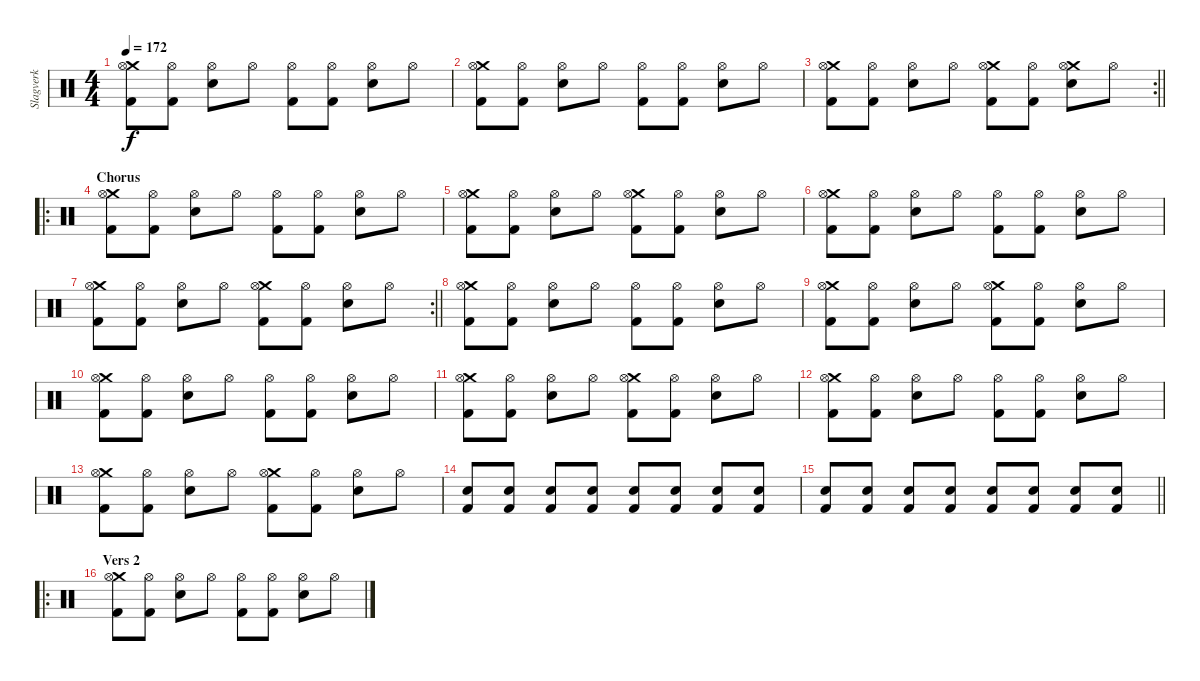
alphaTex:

\track ("Slagverk" "Slagverk") {instrument percussion}
\staff {score}
\articulation defaults
\ts (4 4)
\tempo 172
\clef neutral
\ks c
("Crash medium (hit)" "Kick (hit) 2" "Hi-Hat (open)").8{dy f} ("Kick (hit) 2" "Hi-Hat (open)").8 ("Snare (hit) 2" "Hi-Hat (open)").8 "Hi-Hat (open)".8 ("Kick (hit) 2" "Hi-Hat (open)").8 ("Kick (hit) 2" "Hi-Hat (open)").8 ("Snare (hit) 2" "Hi-Hat (open)").8 "Hi-Hat (open)".8 |
("Crash medium (hit)" "Kick (hit) 2" "Hi-Hat (open)").8 ("Kick (hit) 2" "Hi-Hat (open)").8 ("Snare (hit) 2" "Hi-Hat (open)").8 "Hi-Hat (open)".8 ("Kick (hit) 2" "Hi-Hat (open)").8 ("Kick (hit) 2" "Hi-Hat (open)").8 ("Snare (hit) 2" "Hi-Hat (open)").8 "Hi-Hat (open)".8 |
\rc 2
\barLineRight lightlight
("Crash medium (hit)" "Kick (hit) 2" "Hi-Hat (open)").8 ("Kick (hit) 2" "Hi-Hat (open)").8 ("Snare (hit) 2" "Hi-Hat (open)").8 "Hi-Hat (open)".8 ("Crash medium (hit)" "Kick (hit) 2" "Hi-Hat (open)").8 ("Kick (hit) 2" "Hi-Hat (open)").8 ("Crash medium (hit)" "Snare (hit) 2" "Hi-Hat (open)").8 "Hi-Hat (open)".8 |
\ro
\section ("" "Chorus")
("Crash medium (hit)" "Kick (hit) 2" "Hi-Hat (open)").8 ("Kick (hit) 2" "Hi-Hat (open)").8 ("Snare (hit) 2" "Hi-Hat (open)").8 "Hi-Hat (open)".8 ("Kick (hit) 2" "Hi-Hat (open)").8 ("Kick (hit) 2" "Hi-Hat (open)").8 ("Snare (hit) 2" "Hi-Hat (open)").8 "Hi-Hat (open)".8 |
("Crash medium (hit)" "Kick (hit) 2" "Hi-Hat (open)").8 ("Kick (hit) 2" "Hi-Hat (open)").8 ("Snare (hit) 2" "Hi-Hat (open)").8 "Hi-Hat (open)".8 ("Crash medium (hit)" "Kick (hit) 2" "Hi-Hat (open)").8 ("Kick (hit) 2" "Hi-Hat (open)").8 ("Snare (hit) 2" "Hi-Hat (open)").8 "Hi-Hat (open)".8 |
("Crash medium (hit)" "Kick (hit) 2" "Hi-Hat (open)").8 ("Kick (hit) 2" "Hi-Hat (open)").8 ("Snare (hit) 2" "Hi-Hat (open)").8 "Hi-Hat (open)".8 ("Kick (hit) 2" "Hi-Hat (open)").8 ("Kick (hit) 2" "Hi-Hat (open)").8 ("Snare (hit) 2" "Hi-Hat (open)").8 "Hi-Hat (open)".8 |
\rc 2
\barLineRight lightlight
("Crash medium (hit)" "Kick (hit) 2" "Hi-Hat (open)").8 ("Kick (hit) 2" "Hi-Hat (open)").8 ("Snare (hit) 2" "Hi-Hat (open)").8 "Hi-Hat (open)".8 ("Crash medium (hit)" "Kick (hit) 2" "Hi-Hat (open)").8 ("Kick (hit) 2" "Hi-Hat (open)").8 ("Snare (hit) 2" "Hi-Hat (open)").8 "Hi-Hat (open)".8 |
("Crash medium (hit)" "Kick (hit) 2" "Hi-Hat (open)").8 ("Kick (hit) 2" "Hi-Hat (open)").8 ("Snare (hit) 2" "Hi-Hat (open)").8 "Hi-Hat (open)".8 ("Kick (hit) 2" "Hi-Hat (open)").8 ("Kick (hit) 2" "Hi-Hat (open)").8 ("Snare (hit) 2" "Hi-Hat (open)").8 "Hi-Hat (open)".8 |
("Crash medium (hit)" "Kick (hit) 2" "Hi-Hat (open)").8 ("Kick (hit) 2" "Hi-Hat (open)").8 ("Snare (hit) 2" "Hi-Hat (open)").8 "Hi-Hat (open)".8 ("Crash medium (hit)" "Kick (hit) 2" "Hi-Hat (open)").8 ("Kick (hit) 2" "Hi-Hat (open)").8 ("Snare (hit) 2" "Hi-Hat (open)").8 "Hi-Hat (open)".8 |
("Crash medium (hit)" "Kick (hit) 2" "Hi-Hat (open)").8 ("Kick (hit) 2" "Hi-Hat (open)").8 ("Snare (hit) 2" "Hi-Hat (open)").8 "Hi-Hat (open)".8 ("Kick (hit) 2" "Hi-Hat (open)").8 ("Kick (hit) 2" "Hi-Hat (open)").8 ("Snare (hit) 2" "Hi-Hat (open)").8 "Hi-Hat (open)".8 |
("Crash medium (hit)" "Kick (hit) 2" "Hi-Hat (open)").8 ("Kick (hit) 2" "Hi-Hat (open)").8 ("Snare (hit) 2" "Hi-Hat (open)").8 "Hi-Hat (open)".8 ("Crash medium (hit)" "Kick (hit) 2" "Hi-Hat (open)").8 ("Kick (hit) 2" "Hi-Hat (open)").8 ("Snare (hit) 2" "Hi-Hat (open)").8 "Hi-Hat (open)".8 |
("Crash medium (hit)" "Kick (hit) 2" "Hi-Hat (open)").8 ("Kick (hit) 2" "Hi-Hat (open)").8 ("Snare (hit) 2" "Hi-Hat (open)").8 "Hi-Hat (open)".8 ("Kick (hit) 2" "Hi-Hat (open)").8 ("Kick (hit) 2" "Hi-Hat (open)").8 ("Snare (hit) 2" "Hi-Hat (open)").8 "Hi-Hat (open)".8 |
("Crash medium (hit)" "Kick (hit) 2" "Hi-Hat (open)").8 ("Kick (hit) 2" "Hi-Hat (open)").8 ("Snare (hit) 2" "Hi-Hat (open)").8 "Hi-Hat (open)".8 ("Crash medium (hit)" "Kick (hit) 2" "Hi-Hat (open)").8 ("Kick (hit) 2" "Hi-Hat (open)").8 ("Snare (hit) 2" "Hi-Hat (open)").8 "Hi-Hat (open)".8 |
("Snare (hit) 2" "Kick (hit) 2").8 ("Snare (hit) 2" "Kick (hit) 2").8 ("Snare (hit) 2" "Kick (hit) 2").8 ("Snare (hit) 2" "Kick (hit) 2").8 ("Snare (hit) 2" "Kick (hit) 2").8 ("Snare (hit) 2" "Kick (hit) 2").8 ("Snare (hit) 2" "Kick (hit) 2").8 ("Snare (hit) 2" "Kick (hit) 2").8 |
\barLineRight lightlight
("Snare (hit) 2" "Kick (hit) 2").8 ("Snare (hit) 2" "Kick (hit) 2").8 ("Snare (hit) 2" "Kick (hit) 2").8 ("Snare (hit) 2" "Kick (hit) 2").8 ("Snare (hit) 2" "Kick (hit) 2").8 ("Snare (hit) 2" "Kick (hit) 2").8 ("Snare (hit) 2" "Kick (hit) 2").8 ("Snare (hit) 2" "Kick (hit) 2").8 |
\ro
\section ("" "Vers 2")
("Crash medium (hit)" "Kick (hit) 2" "Hi-Hat (open)").8 ("Kick (hit) 2" "Hi-Hat (open)").8 ("Snare (hit) 2" "Hi-Hat (open)").8 "Hi-Hat (open)".8 ("Kick (hit) 2" "Hi-Hat (open)").8 ("Kick (hit) 2" "Hi-Hat (open)").8 ("Snare (hit) 2" "Hi-Hat (open)").8 "Hi-Hat (open)".8
